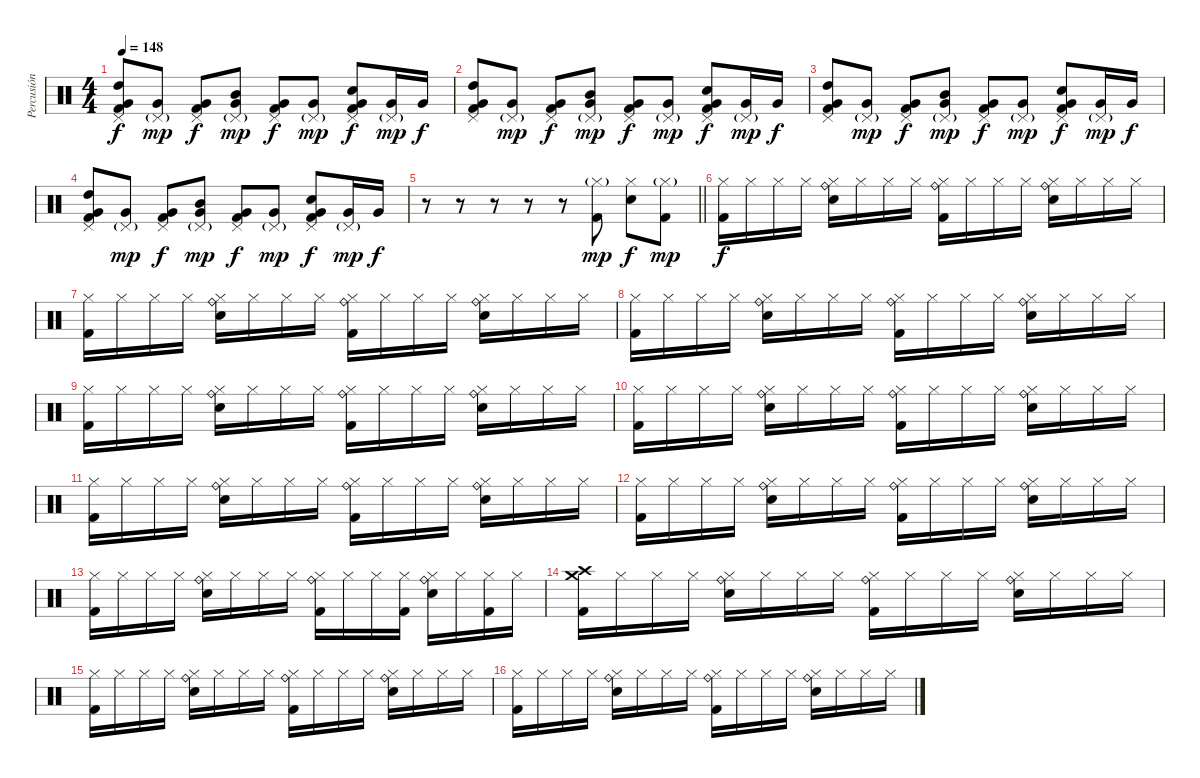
\track ("Percusión" "Percusión") {instrument percussion}
\staff {score}
\articulation defaults
\ts (4 4)
\tempo 148
\clef neutral
\ks c
("Pedal Hi-Hat (hit)" "Very Low Tom (hit)" "High Tom (hit)" "Kick (hit) 2").8{dy f} ("Pedal Hi-Hat (hit)"{g} "Very Low Tom (hit)").8{dy mp} ("Pedal Hi-Hat (hit)" "Very Low Tom (hit)" "Kick (hit) 2").8{dy f} ("Pedal Hi-Hat (hit)"{g} "Very Low Tom (hit)" "Mid Tom (hit)").8{dy mp} ("Pedal Hi-Hat (hit)" "Very Low Tom (hit)" "Kick (hit) 2").8{dy f} ("Pedal Hi-Hat (hit)"{g} "Very Low Tom (hit)").8{dy mp} ("Pedal Hi-Hat (hit)" "Very Low Tom (hit)" "Snare (hit) 2" "Kick (hit) 2").8{dy f} ("Pedal Hi-Hat (hit)"{g} "Very Low Tom (hit)").16{dy mp} "Very Low Tom (hit)".16{dy f} |
("Pedal Hi-Hat (hit)" "Very Low Tom (hit)" "High Tom (hit)" "Kick (hit) 2").8 ("Pedal Hi-Hat (hit)"{g} "Very Low Tom (hit)").8{dy mp} ("Pedal Hi-Hat (hit)" "Very Low Tom (hit)" "Kick (hit) 2").8{dy f} ("Pedal Hi-Hat (hit)"{g} "Very Low Tom (hit)" "Mid Tom (hit)").8{dy mp} ("Pedal Hi-Hat (hit)" "Very Low Tom (hit)" "Kick (hit) 2").8{dy f} ("Pedal Hi-Hat (hit)"{g} "Very Low Tom (hit)").8{dy mp} ("Pedal Hi-Hat (hit)" "Very Low Tom (hit)" "Snare (hit) 2" "Kick (hit) 2").8{dy f} ("Pedal Hi-Hat (hit)"{g} "Very Low Tom (hit)").16{dy mp} "Very Low Tom (hit)".16{dy f} |
("Pedal Hi-Hat (hit)" "Very Low Tom (hit)" "High Tom (hit)" "Kick (hit) 2").8 ("Pedal Hi-Hat (hit)"{g} "Very Low Tom (hit)").8{dy mp} ("Pedal Hi-Hat (hit)" "Very Low Tom (hit)" "Kick (hit) 2").8{dy f} ("Pedal Hi-Hat (hit)"{g} "Very Low Tom (hit)" "Mid Tom (hit)").8{dy mp} ("Pedal Hi-Hat (hit)" "Very Low Tom (hit)" "Kick (hit) 2").8{dy f} ("Pedal Hi-Hat (hit)"{g} "Very Low Tom (hit)").8{dy mp} ("Pedal Hi-Hat (hit)" "Very Low Tom (hit)" "Snare (hit) 2" "Kick (hit) 2").8{dy f} ("Pedal Hi-Hat (hit)"{g} "Very Low Tom (hit)").16{dy mp} "Very Low Tom (hit)".16{dy f} |
("Pedal Hi-Hat (hit)" "Very Low Tom (hit)" "High Tom (hit)" "Kick (hit) 2").8 ("Pedal Hi-Hat (hit)"{g} "Very Low Tom (hit)").8{dy mp} ("Pedal Hi-Hat (hit)" "Very Low Tom (hit)" "Kick (hit) 2").8{dy f} ("Pedal Hi-Hat (hit)"{g} "Very Low Tom (hit)" "Mid Tom (hit)").8{dy mp} ("Pedal Hi-Hat (hit)" "Very Low Tom (hit)" "Kick (hit) 2").8{dy f} ("Pedal Hi-Hat (hit)"{g} "Very Low Tom (hit)").8{dy mp} ("Pedal Hi-Hat (hit)" "Very Low Tom (hit)" "Snare (hit) 2" "Kick (hit) 2").8{dy f} ("Pedal Hi-Hat (hit)"{g} "Very Low Tom (hit)").16{dy mp} "Very Low Tom (hit)".16{dy f} |
\barLineRight lightlight
r.8 r.8 r.8 r.8 r.8 ("Hi-Hat (closed)"{g} "Kick (hit) 2").8{dy mp} ("Hi-Hat (closed)" "Snare (hit) 2").8{dy f} ("Hi-Hat (closed)"{g} "Kick (hit) 2").8{dy mp} |
("Hi-Hat (closed)" "Kick (hit) 2").16{dy f} "Hi-Hat (closed)".16 "Hi-Hat (closed)".16 "Hi-Hat (closed)".16 ("Hi-Hat (closed)" "Ride (bell)" "Snare (hit) 2").16 "Hi-Hat (closed)".16 "Hi-Hat (closed)".16 "Hi-Hat (closed)".16 ("Hi-Hat (closed)" "Ride (bell)" "Kick (hit) 2").16 "Hi-Hat (closed)".16 "Hi-Hat (closed)".16 "Hi-Hat (closed)".16 ("Hi-Hat (closed)" "Ride (bell)" "Snare (hit) 2").16 "Hi-Hat (closed)".16 "Hi-Hat (closed)".16 "Hi-Hat (closed)".16 |
("Hi-Hat (closed)" "Kick (hit) 2").16 "Hi-Hat (closed)".16 "Hi-Hat (closed)".16 "Hi-Hat (closed)".16 ("Hi-Hat (closed)" "Ride (bell)" "Snare (hit) 2").16 "Hi-Hat (closed)".16 "Hi-Hat (closed)".16 "Hi-Hat (closed)".16 ("Hi-Hat (closed)" "Ride (bell)" "Kick (hit) 2").16 "Hi-Hat (closed)".16 "Hi-Hat (closed)".16 "Hi-Hat (closed)".16 ("Hi-Hat (closed)" "Ride (bell)" "Snare (hit) 2").16 "Hi-Hat (closed)".16 "Hi-Hat (closed)".16 "Hi-Hat (closed)".16 |
("Hi-Hat (closed)" "Kick (hit) 2").16 "Hi-Hat (closed)".16 "Hi-Hat (closed)".16 "Hi-Hat (closed)".16 ("Hi-Hat (closed)" "Ride (bell)" "Snare (hit) 2").16 "Hi-Hat (closed)".16 "Hi-Hat (closed)".16 "Hi-Hat (closed)".16 ("Hi-Hat (closed)" "Ride (bell)" "Kick (hit) 2").16 "Hi-Hat (closed)".16 "Hi-Hat (closed)".16 "Hi-Hat (closed)".16 ("Hi-Hat (closed)" "Ride (bell)" "Snare (hit) 2").16 "Hi-Hat (closed)".16 "Hi-Hat (closed)".16 "Hi-Hat (closed)".16 |
("Hi-Hat (closed)" "Kick (hit) 2").16 "Hi-Hat (closed)".16 "Hi-Hat (closed)".16 "Hi-Hat (closed)".16 ("Hi-Hat (closed)" "Ride (bell)" "Snare (hit) 2").16 "Hi-Hat (closed)".16 "Hi-Hat (closed)".16 "Hi-Hat (closed)".16 ("Hi-Hat (closed)" "Ride (bell)" "Kick (hit) 2").16 "Hi-Hat (closed)".16 "Hi-Hat (closed)".16 "Hi-Hat (closed)".16 ("Hi-Hat (closed)" "Ride (bell)" "Snare (hit) 2").16 "Hi-Hat (closed)".16 "Hi-Hat (closed)".16 "Hi-Hat (closed)".16 |
("Hi-Hat (closed)" "Kick (hit) 2").16 "Hi-Hat (closed)".16 "Hi-Hat (closed)".16 "Hi-Hat (closed)".16 ("Hi-Hat (closed)" "Ride (bell)" "Snare (hit) 2").16 "Hi-Hat (closed)".16 "Hi-Hat (closed)".16 "Hi-Hat (closed)".16 ("Hi-Hat (closed)" "Ride (bell)" "Kick (hit) 2").16 "Hi-Hat (closed)".16 "Hi-Hat (closed)".16 "Hi-Hat (closed)".16 ("Hi-Hat (closed)" "Ride (bell)" "Snare (hit) 2").16 "Hi-Hat (closed)".16 "Hi-Hat (closed)".16 "Hi-Hat (closed)".16 |
("Hi-Hat (closed)" "Kick (hit) 2").16 "Hi-Hat (closed)".16 "Hi-Hat (closed)".16 "Hi-Hat (closed)".16 ("Hi-Hat (closed)" "Ride (bell)" "Snare (hit) 2").16 "Hi-Hat (closed)".16 "Hi-Hat (closed)".16 "Hi-Hat (closed)".16 ("Hi-Hat (closed)" "Ride (bell)" "Kick (hit) 2").16 "Hi-Hat (closed)".16 "Hi-Hat (closed)".16 "Hi-Hat (closed)".16 ("Hi-Hat (closed)" "Ride (bell)" "Snare (hit) 2").16 "Hi-Hat (closed)".16 "Hi-Hat (closed)".16 "Hi-Hat (closed)".16 |
("Hi-Hat (closed)" "Kick (hit) 2").16 "Hi-Hat (closed)".16 "Hi-Hat (closed)".16 "Hi-Hat (closed)".16 ("Hi-Hat (closed)" "Ride (bell)" "Snare (hit) 2").16 "Hi-Hat (closed)".16 "Hi-Hat (closed)".16 "Hi-Hat (closed)".16 ("Hi-Hat (closed)" "Ride (bell)" "Kick (hit) 2").16 "Hi-Hat (closed)".16 "Hi-Hat (closed)".16 "Hi-Hat (closed)".16 ("Hi-Hat (closed)" "Ride (bell)" "Snare (hit) 2").16 "Hi-Hat (closed)".16 "Hi-Hat (closed)".16 "Hi-Hat (closed)".16 |
("Hi-Hat (closed)" "Kick (hit) 2").16 "Hi-Hat (closed)".16 "Hi-Hat (closed)".16 "Hi-Hat (closed)".16 ("Hi-Hat (closed)" "Ride (bell)" "Snare (hit) 2").16 "Hi-Hat (closed)".16 "Hi-Hat (closed)".16 "Hi-Hat (closed)".16 ("Hi-Hat (closed)" "Ride (bell)" "Kick (hit) 2").16 "Hi-Hat (closed)".16 "Hi-Hat (closed)".16 ("Hi-Hat (closed)" "Kick (hit) 2").16 ("Hi-Hat (closed)" "Ride (bell)" "Snare (hit) 2").16 "Hi-Hat (closed)".16 ("Hi-Hat (closed)" "Kick (hit) 2").16 "Hi-Hat (closed)".16 |
("Crash medium (hit)" "Crash high (hit)" "Kick (hit) 2").16 "Hi-Hat (closed)".16 "Hi-Hat (closed)".16 "Hi-Hat (closed)".16 ("Hi-Hat (closed)" "Ride (bell)" "Snare (hit) 2").16 "Hi-Hat (closed)".16 "Hi-Hat (closed)".16 "Hi-Hat (closed)".16 ("Hi-Hat (closed)" "Ride (bell)" "Kick (hit) 2").16 "Hi-Hat (closed)".16 "Hi-Hat (closed)".16 "Hi-Hat (closed)".16 ("Hi-Hat (closed)" "Ride (bell)" "Snare (hit) 2").16 "Hi-Hat (closed)".16 "Hi-Hat (closed)".16 "Hi-Hat (closed)".16 |
("Hi-Hat (closed)" "Kick (hit) 2").16 "Hi-Hat (closed)".16 "Hi-Hat (closed)".16 "Hi-Hat (closed)".16 ("Hi-Hat (closed)" "Ride (bell)" "Snare (hit) 2").16 "Hi-Hat (closed)".16 "Hi-Hat (closed)".16 "Hi-Hat (closed)".16 ("Hi-Hat (closed)" "Ride (bell)" "Kick (hit) 2").16 "Hi-Hat (closed)".16 "Hi-Hat (closed)".16 "Hi-Hat (closed)".16 ("Hi-Hat (closed)" "Ride (bell)" "Snare (hit) 2").16 "Hi-Hat (closed)".16 "Hi-Hat (closed)".16 "Hi-Hat (closed)".16 |
("Hi-Hat (closed)" "Kick (hit) 2").16 "Hi-Hat (closed)".16 "Hi-Hat (closed)".16 "Hi-Hat (closed)".16 ("Hi-Hat (closed)" "Ride (bell)" "Snare (hit) 2").16 "Hi-Hat (closed)".16 "Hi-Hat (closed)".16 "Hi-Hat (closed)".16 ("Hi-Hat (closed)" "Ride (bell)" "Kick (hit) 2").16 "Hi-Hat (closed)".16 "Hi-Hat (closed)".16 "Hi-Hat (closed)".16 ("Hi-Hat (closed)" "Ride (bell)" "Snare (hit) 2").16 "Hi-Hat (closed)".16 "Hi-Hat (closed)".16 "Hi-Hat (closed)".16
